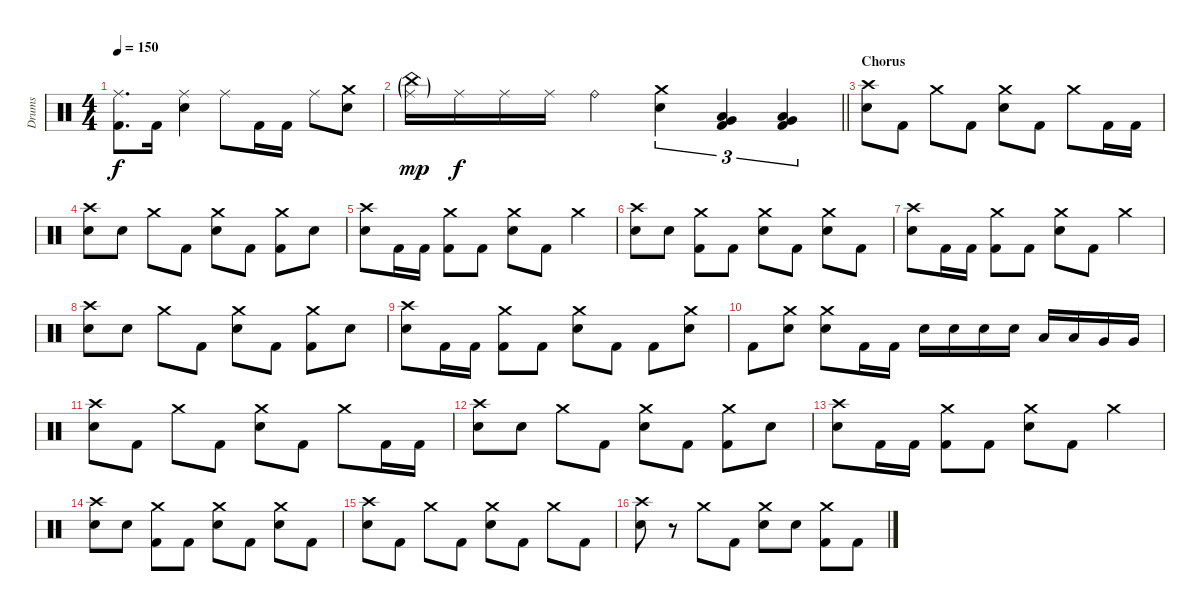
\track ("Drums" "Drums") {instrument percussion}
\staff {score}
\articulation defaults
\ts (4 4)
\tempo 150
\clef neutral
\ks c
("Ride (middle)" "Kick (hit) 2").8{d dy f} "Kick (hit) 2".16 ("Ride (middle)" "Snare (hit) 2").4 "Ride (middle)".8 "Kick (hit) 2".16 "Kick (hit) 2".16 "Ride (middle)".8 ("Crash medium (hit)" "Snare (hit) 2").8 |
\barLineRight lightlight
("China (hit)"{g} "Ride (middle)"{g}).16{dy mp} "Ride (middle)".16{dy f} "Ride (middle)".16 "Ride (middle)".16 "Ride (bell)".4 ("Crash medium (hit)" "Snare (hit) 2").4{tu (3 2)} ("Very Low Tom (hit)" "Low Tom (hit)" "Kick (hit) 2").4{tu (3 2)} ("Very Low Tom (hit)" "Low Floor Tom (hit)" "Kick (hit) 2").4{tu (3 2)} |
\section ("" "Chorus")
("Crash high (hit)" "Snare (hit) 2").8 "Kick (hit) 2".8 "Crash medium (hit)".8 "Kick (hit) 2".8 ("Crash medium (hit)" "Snare (hit) 2").8 "Kick (hit) 2".8 "Crash medium (hit)".8 "Kick (hit) 2".16 "Kick (hit) 2".16 |
("Crash high (hit)" "Snare (hit) 2").8 "Snare (hit) 2".8 "Crash medium (hit)".8 "Kick (hit) 2".8 ("Crash medium (hit)" "Snare (hit) 2").8 "Kick (hit) 2".8 ("Crash medium (hit)" "Kick (hit) 2").8 "Snare (hit) 2".8 |
("Crash high (hit)" "Snare (hit) 2").8 "Kick (hit) 2".16 "Kick (hit) 2".16 ("Crash medium (hit)" "Kick (hit) 2").8 "Kick (hit) 2".8 ("Crash medium (hit)" "Snare (hit) 2").8 "Kick (hit) 2".8 "Crash medium (hit)".4 |
("Crash high (hit)" "Snare (hit) 2").8 "Snare (hit) 2".8 ("Crash medium (hit)" "Kick (hit) 2").8 "Kick (hit) 2".8 ("Crash medium (hit)" "Snare (hit) 2").8 "Kick (hit) 2".8 ("Crash medium (hit)" "Snare (hit) 2").8 "Kick (hit) 2".8 |
("Crash high (hit)" "Snare (hit) 2").8 "Kick (hit) 2".16 "Kick (hit) 2".16 ("Crash medium (hit)" "Kick (hit) 2").8 "Kick (hit) 2".8 ("Crash medium (hit)" "Snare (hit) 2").8 "Kick (hit) 2".8 "Crash medium (hit)".4 |
("Crash high (hit)" "Snare (hit) 2").8 "Snare (hit) 2".8 "Crash medium (hit)".8 "Kick (hit) 2".8 ("Crash medium (hit)" "Snare (hit) 2").8 "Kick (hit) 2".8 ("Crash medium (hit)" "Kick (hit) 2").8 "Snare (hit) 2".8 |
("Crash high (hit)" "Snare (hit) 2").8 "Kick (hit) 2".16 "Kick (hit) 2".16 ("Crash medium (hit)" "Kick (hit) 2").8 "Kick (hit) 2".8 ("Crash medium (hit)" "Snare (hit) 2").8 "Kick (hit) 2".8 "Kick (hit) 2".8 ("Crash medium (hit)" "Snare (hit) 2").8 |
"Kick (hit) 2".8 ("Crash medium (hit)" "Snare (hit) 2").8 ("Crash medium (hit)" "Snare (hit) 2").8 "Kick (hit) 2".16 "Kick (hit) 2".16 "Snare (hit) 2".16 "Snare (hit) 2".16 "Snare (hit) 2".16 "Snare (hit) 2".16 "Low Tom (hit)".16 "Low Tom (hit)".16 "Very Low Tom (hit)".16 "Very Low Tom (hit)".16 |
("Crash high (hit)" "Snare (hit) 2").8 "Kick (hit) 2".8 "Crash medium (hit)".8 "Kick (hit) 2".8 ("Crash medium (hit)" "Snare (hit) 2").8 "Kick (hit) 2".8 "Crash medium (hit)".8 "Kick (hit) 2".16 "Kick (hit) 2".16 |
("Crash high (hit)" "Snare (hit) 2").8 "Snare (hit) 2".8 "Crash medium (hit)".8 "Kick (hit) 2".8 ("Crash medium (hit)" "Snare (hit) 2").8 "Kick (hit) 2".8 ("Crash medium (hit)" "Kick (hit) 2").8 "Snare (hit) 2".8 |
("Crash high (hit)" "Snare (hit) 2").8 "Kick (hit) 2".16 "Kick (hit) 2".16 ("Crash medium (hit)" "Kick (hit) 2").8 "Kick (hit) 2".8 ("Crash medium (hit)" "Snare (hit) 2").8 "Kick (hit) 2".8 "Crash medium (hit)".4 |
("Crash high (hit)" "Snare (hit) 2").8 "Snare (hit) 2".8 ("Crash medium (hit)" "Kick (hit) 2").8 "Kick (hit) 2".8 ("Crash medium (hit)" "Snare (hit) 2").8 "Kick (hit) 2".8 ("Crash medium (hit)" "Snare (hit) 2").8 "Kick (hit) 2".8 |
("Crash high (hit)" "Snare (hit) 2").8 "Kick (hit) 2".8 "Crash medium (hit)".8 "Kick (hit) 2".8 ("Crash medium (hit)" "Snare (hit) 2").8 "Kick (hit) 2".8 "Crash medium (hit)".8 "Kick (hit) 2".8 |
("Crash high (hit)" "Snare (hit) 2").8 r.8 "Crash medium (hit)".8 "Kick (hit) 2".8 ("Crash medium (hit)" "Snare (hit) 2").8 "Snare (hit) 2".8 ("Crash medium (hit)" "Kick (hit) 2").8 "Kick (hit) 2".8
